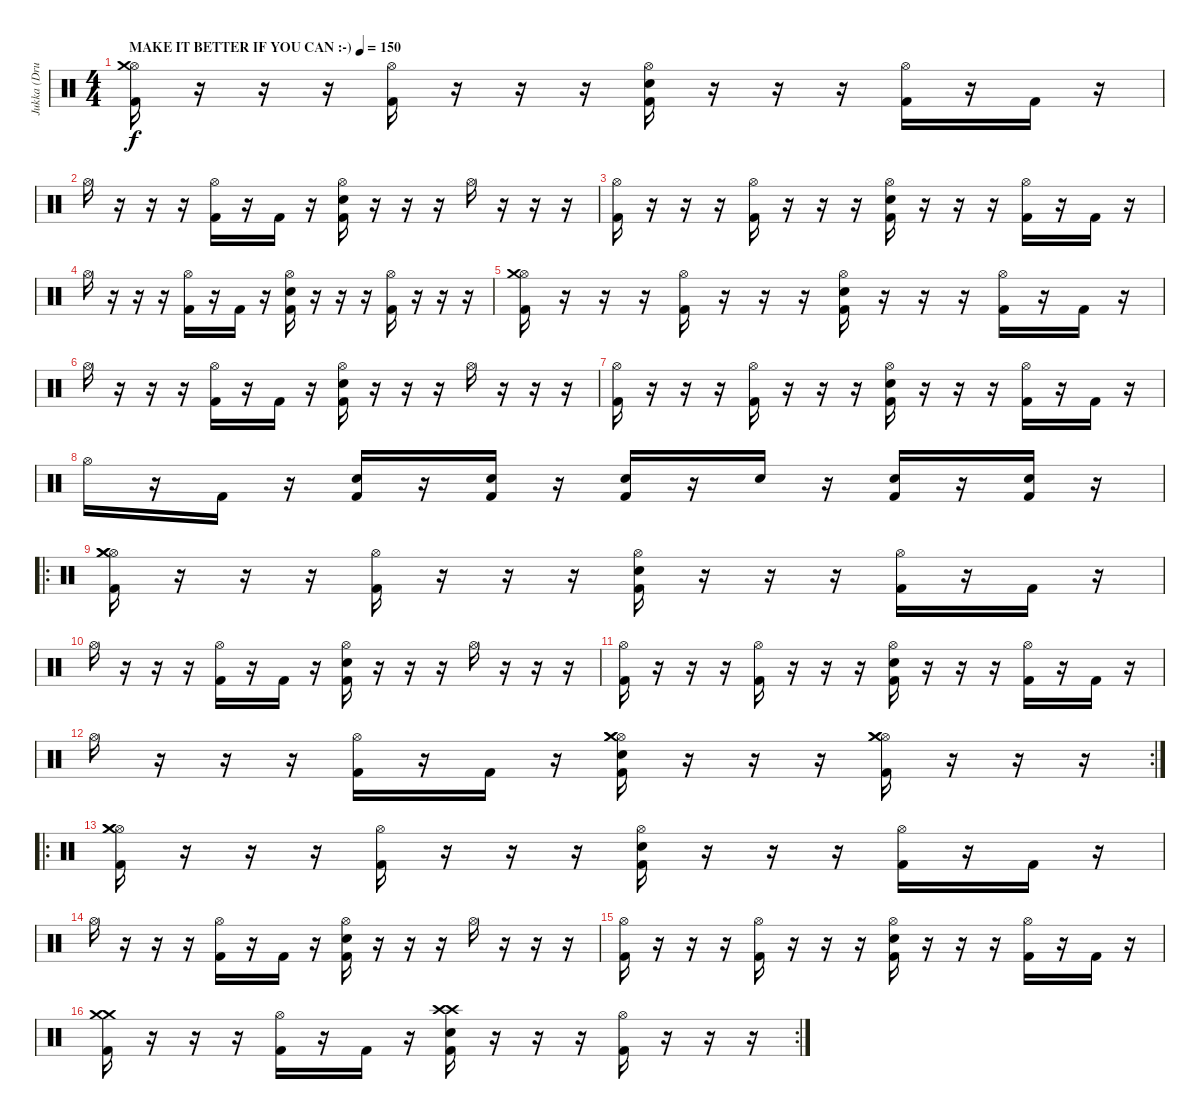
\track ("Jukka (Drums)" "Jukka (Dru") {instrument percussion}
\staff {score}
\articulation defaults
\ts (4 4)
\tempo (150 "MAKE IT BETTER IF YOU CAN :-)")
\clef neutral
\ks c
("Hi-Hat (open)" "Crash medium (hit)" "Kick (hit) 2").16{dy f} r.16 r.16 r.16 ("Hi-Hat (open)" "Kick (hit) 2").16 r.16 r.16 r.16 ("Hi-Hat (open)" "Snare (hit) 2" "Kick (hit) 2").16 r.16 r.16 r.16 ("Hi-Hat (open)" "Kick (hit) 2").16 r.16 "Kick (hit) 2".16 r.16 |
"Hi-Hat (open)".16 r.16 r.16 r.16 ("Hi-Hat (open)" "Kick (hit) 2").16 r.16 "Kick (hit) 2".16 r.16 ("Hi-Hat (open)" "Snare (hit) 2" "Kick (hit) 2").16 r.16 r.16 r.16 "Hi-Hat (open)".16 r.16 r.16 r.16 |
("Hi-Hat (open)" "Kick (hit) 2").16 r.16 r.16 r.16 ("Hi-Hat (open)" "Kick (hit) 2").16 r.16 r.16 r.16 ("Hi-Hat (open)" "Snare (hit) 2" "Kick (hit) 2").16 r.16 r.16 r.16 ("Hi-Hat (open)" "Kick (hit) 2").16 r.16 "Kick (hit) 2".16 r.16 |
"Hi-Hat (open)".16 r.16 r.16 r.16 ("Hi-Hat (open)" "Kick (hit) 2").16 r.16 "Kick (hit) 2".16 r.16 ("Hi-Hat (open)" "Snare (hit) 2" "Kick (hit) 2").16 r.16 r.16 r.16 ("Hi-Hat (open)" "Kick (hit) 2").16 r.16 r.16 r.16 |
("Hi-Hat (open)" "Crash medium (hit)" "Kick (hit) 2").16 r.16 r.16 r.16 ("Hi-Hat (open)" "Kick (hit) 2").16 r.16 r.16 r.16 ("Hi-Hat (open)" "Snare (hit) 2" "Kick (hit) 2").16 r.16 r.16 r.16 ("Hi-Hat (open)" "Kick (hit) 2").16 r.16 "Kick (hit) 2".16 r.16 |
"Hi-Hat (open)".16 r.16 r.16 r.16 ("Hi-Hat (open)" "Kick (hit) 2").16 r.16 "Kick (hit) 2".16 r.16 ("Hi-Hat (open)" "Snare (hit) 2" "Kick (hit) 2").16 r.16 r.16 r.16 "Hi-Hat (open)".16 r.16 r.16 r.16 |
("Hi-Hat (open)" "Kick (hit) 2").16 r.16 r.16 r.16 ("Hi-Hat (open)" "Kick (hit) 2").16 r.16 r.16 r.16 ("Hi-Hat (open)" "Snare (hit) 2" "Kick (hit) 2").16 r.16 r.16 r.16 ("Hi-Hat (open)" "Kick (hit) 2").16 r.16 "Kick (hit) 2".16 r.16 |
"Hi-Hat (open)".16 r.16 "Kick (hit) 2".16 r.16 ("Snare (hit) 2" "Kick (hit) 2").16 r.16 ("Snare (hit) 2" "Kick (hit) 2").16 r.16 ("Snare (hit) 2" "Kick (hit) 2").16 r.16 "Snare (hit) 2".16 r.16 ("Snare (hit) 2" "Kick (hit) 2").16 r.16 ("Snare (hit) 2" "Kick (hit) 2").16 r.16 |
\ro
("Hi-Hat (open)" "Crash medium (hit)" "Crash medium (hit)" "Kick (hit) 2").16 r.16 r.16 r.16 ("Hi-Hat (open)" "Kick (hit) 2").16 r.16 r.16 r.16 ("Hi-Hat (open)" "Snare (hit) 2" "Kick (hit) 2").16 r.16 r.16 r.16 ("Hi-Hat (open)" "Kick (hit) 2").16 r.16 "Kick (hit) 2".16 r.16 |
"Hi-Hat (open)".16 r.16 r.16 r.16 ("Hi-Hat (open)" "Kick (hit) 2").16 r.16 "Kick (hit) 2".16 r.16 ("Hi-Hat (open)" "Snare (hit) 2" "Kick (hit) 2").16 r.16 r.16 r.16 "Hi-Hat (open)".16 r.16 r.16 r.16 |
("Hi-Hat (open)" "Kick (hit) 2").16 r.16 r.16 r.16 ("Hi-Hat (open)" "Kick (hit) 2").16 r.16 r.16 r.16 ("Hi-Hat (open)" "Snare (hit) 2" "Kick (hit) 2").16 r.16 r.16 r.16 ("Hi-Hat (open)" "Kick (hit) 2").16 r.16 "Kick (hit) 2".16 r.16 |
\rc 2 "Hi-Hat (open)".16
r.16 r.16 r.16 ("Hi-Hat (open)" "Kick (hit) 2").16 r.16 "Kick (hit) 2".16 r.16 ("Hi-Hat (open)" "Crash medium (hit)" "Snare (hit) 2" "Crash medium (hit)" "Kick (hit) 2").16 r.16 r.16 r.16 ("Hi-Hat (open)" "Crash medium (hit)" "Crash medium (hit)" "Kick (hit) 2").16 r.16 r.16 r.16 |
\ro
("Hi-Hat (open)" "Crash medium (hit)" "Crash medium (hit)" "Kick (hit) 2").16 r.16 r.16 r.16 ("Hi-Hat (open)" "Kick (hit) 2").16 r.16 r.16 r.16 ("Hi-Hat (open)" "Snare (hit) 2" "Kick (hit) 2").16 r.16 r.16 r.16 ("Hi-Hat (open)" "Kick (hit) 2").16 r.16 "Kick (hit) 2".16 r.16 |
"Hi-Hat (open)".16 r.16 r.16 r.16 ("Hi-Hat (open)" "Kick (hit) 2").16 r.16 "Kick (hit) 2".16 r.16 ("Hi-Hat (open)" "Snare (hit) 2" "Kick (hit) 2").16 r.16 r.16 r.16 "Hi-Hat (open)".16 r.16 r.16 r.16 |
("Hi-Hat (open)" "Kick (hit) 2").16 r.16 r.16 r.16 ("Hi-Hat (open)" "Kick (hit) 2").16 r.16 r.16 r.16 ("Hi-Hat (open)" "Snare (hit) 2" "Kick (hit) 2").16 r.16 r.16 r.16 ("Hi-Hat (open)" "Kick (hit) 2").16 r.16 "Kick (hit) 2".16 r.16 |
\rc 2
("Crash medium (hit)" "Crash medium (hit)" "Kick (hit) 2").16 r.16 r.16 r.16 ("Hi-Hat (open)" "Kick (hit) 2").16 r.16 "Kick (hit) 2".16 r.16 ("Crash high (hit)" "Crash high (hit)" "Snare (hit) 2" "Kick (hit) 2").16 r.16 r.16 r.16 ("Hi-Hat (open)" "Kick (hit) 2").16 r.16 r.16 r.16
